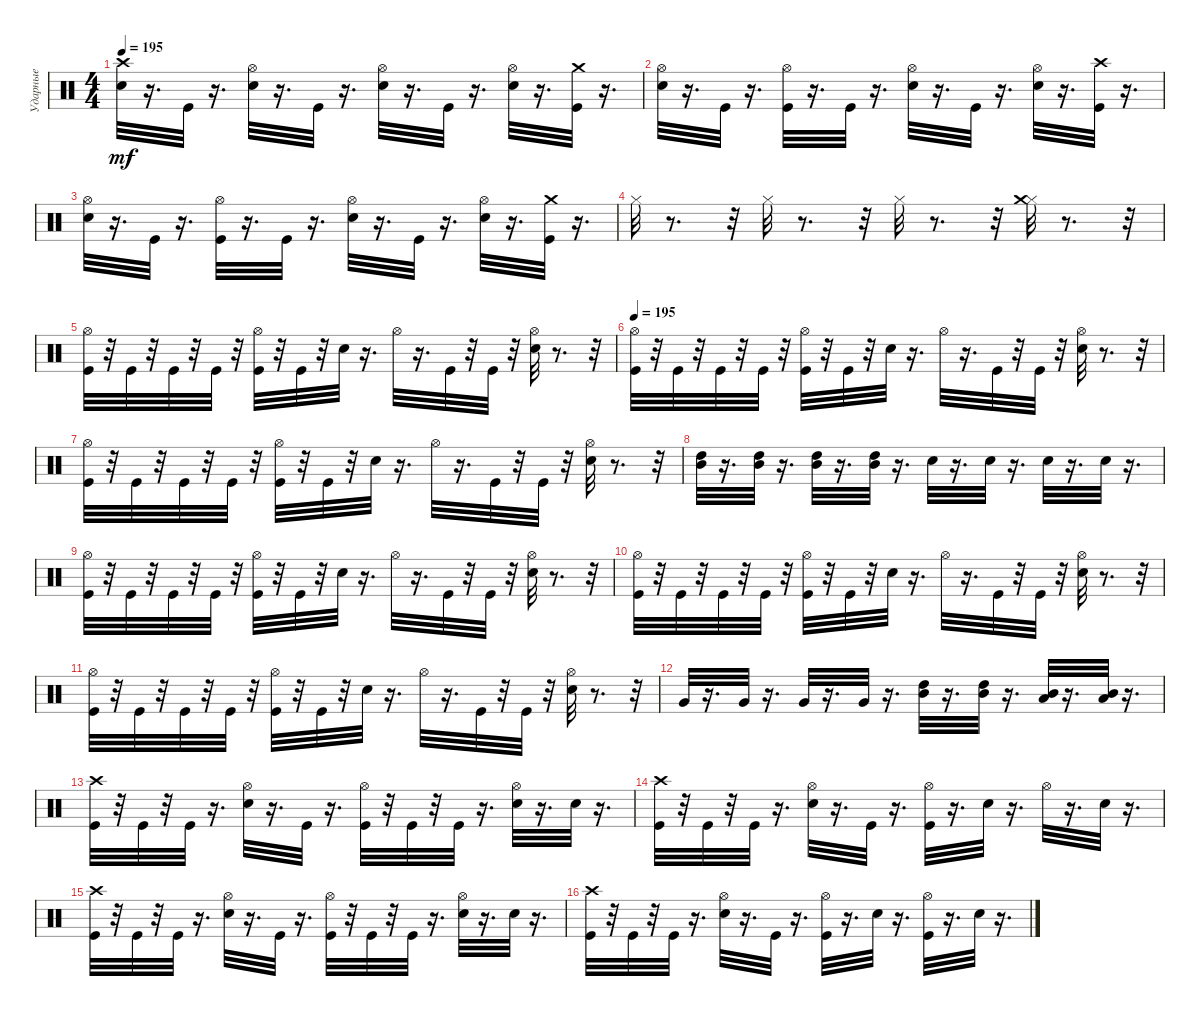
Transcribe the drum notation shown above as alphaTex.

\track ("Ударные" "Ударные") {instrument percussion}
\staff {score}
\articulation defaults
\ts (4 4)
\tempo 195
\clef neutral
\ks c
("Crash high (hit)" "Electric Snare (hit)").32{dy mf} r.16{d} "Kick (hit)".32 r.16{d} ("Electric Snare (hit)" "Hi-Hat (open)").32 r.16{d} "Kick (hit)".32 r.16{d} ("Electric Snare (hit)" "Hi-Hat (open)").32 r.16{d} "Kick (hit)".32 r.16{d} ("Hi-Hat (open)" "Electric Snare (hit)").32 r.16{d} ("Kick (hit)" "Crash medium (hit)").32 r.16{d} |
("Hi-Hat (open)" "Electric Snare (hit)").32 r.16{d} "Kick (hit)".32 r.16{d} ("Hi-Hat (open)" "Kick (hit)").32 r.16{d} "Kick (hit)".32 r.16{d} ("Hi-Hat (open)" "Electric Snare (hit)").32 r.16{d} "Kick (hit)".32 r.16{d} ("Electric Snare (hit)" "Hi-Hat (open)").32 r.16{d} ("Crash high (hit)" "Kick (hit)").32 r.16{d} |
("Electric Snare (hit)" "Hi-Hat (open)").32 r.16{d} "Kick (hit)".32 r.16{d} ("Kick (hit)" "Hi-Hat (open)").32 r.16{d} "Kick (hit)".32 r.16{d} ("Electric Snare (hit)" "Hi-Hat (open)").32 r.16{d} "Kick (hit)".32 r.16{d} ("Electric Snare (hit)" "Hi-Hat (open)").32 r.16{d} ("Kick (hit)" "Crash medium (hit)").32 r.16{d} |
"Hi-Hat (closed)".32 r.8{d} r.32 "Hi-Hat (closed)".32 r.8{d} r.32 "Hi-Hat (closed)".32 r.8{d} r.32 ("Hi-Hat (closed)" "Crash medium (hit)").32 r.8{d} r.32 |
("Kick (hit)" "Hi-Hat (open)").32 r.32 "Kick (hit)".32 r.32 "Kick (hit)".32 r.32 "Kick (hit)".32 r.32 ("Kick (hit)" "Hi-Hat (open)").32 r.32 "Kick (hit)".32 r.32 "Electric Snare (hit)".32 r.16{d} "Hi-Hat (open)".32 r.16{d} "Kick (hit)".32 r.32 "Kick (hit)".32 r.32 ("Hi-Hat (open)" "Electric Snare (hit)").32 r.8{d} r.32 |
\tempo 195
("Kick (hit)" "Hi-Hat (open)").32 r.32 "Kick (hit)".32 r.32 "Kick (hit)".32 r.32 "Kick (hit)".32 r.32 ("Kick (hit)" "Hi-Hat (open)").32 r.32 "Kick (hit)".32 r.32 "Electric Snare (hit)".32 r.16{d} "Hi-Hat (open)".32 r.16{d} "Kick (hit)".32 r.32 "Kick (hit)".32 r.32 ("Electric Snare (hit)" "Hi-Hat (open)").32 r.8{d} r.32 |
("Kick (hit)" "Hi-Hat (open)").32 r.32 "Kick (hit)".32 r.32 "Kick (hit)".32 r.32 "Kick (hit)".32 r.32 ("Kick (hit)" "Hi-Hat (open)").32 r.32 "Kick (hit)".32 r.32 "Electric Snare (hit)".32 r.16{d} "Hi-Hat (open)".32 r.16{d} "Kick (hit)".32 r.32 "Kick (hit)".32 r.32 ("Electric Snare (hit)" "Hi-Hat (open)").32 r.8{d} r.32 |
("Mid Tom (hit)" "High Tom (hit)").32 r.16{d} ("Mid Tom (hit)" "High Tom (hit)").32 r.16{d} ("High Tom (hit)" "Mid Tom (hit)").32 r.16{d} ("High Tom (hit)" "Mid Tom (hit)").32 r.16{d} "Electric Snare (hit)".32 r.16{d} "Electric Snare (hit)".32 r.16{d} "Electric Snare (hit)".32 r.16{d} "Electric Snare (hit)".32 r.16{d} |
("Kick (hit)" "Hi-Hat (open)").32 r.32 "Kick (hit)".32 r.32 "Kick (hit)".32 r.32 "Kick (hit)".32 r.32 ("Kick (hit)" "Hi-Hat (open)").32 r.32 "Kick (hit)".32 r.32 "Electric Snare (hit)".32 r.16{d} "Hi-Hat (open)".32 r.16{d} "Kick (hit)".32 r.32 "Kick (hit)".32 r.32 ("Hi-Hat (open)" "Electric Snare (hit)").32 r.8{d} r.32 |
("Kick (hit)" "Hi-Hat (open)").32 r.32 "Kick (hit)".32 r.32 "Kick (hit)".32 r.32 "Kick (hit)".32 r.32 ("Kick (hit)" "Hi-Hat (open)").32 r.32 "Kick (hit)".32 r.32 "Electric Snare (hit)".32 r.16{d} "Hi-Hat (open)".32 r.16{d} "Kick (hit)".32 r.32 "Kick (hit)".32 r.32 ("Electric Snare (hit)" "Hi-Hat (open)").32 r.8{d} r.32 |
("Kick (hit)" "Hi-Hat (open)").32 r.32 "Kick (hit)".32 r.32 "Kick (hit)".32 r.32 "Kick (hit)".32 r.32 ("Kick (hit)" "Hi-Hat (open)").32 r.32 "Kick (hit)".32 r.32 "Electric Snare (hit)".32 r.16{d} "Hi-Hat (open)".32 r.16{d} "Kick (hit)".32 r.32 "Kick (hit)".32 r.32 ("Electric Snare (hit)" "Hi-Hat (open)").32 r.8{d} r.32 |
"Very Low Tom (hit)".32 r.16{d} "Very Low Tom (hit)".32 r.16{d} "Very Low Tom (hit)".32 r.16{d} "Very Low Tom (hit)".32 r.16{d} ("Mid Tom (hit)" "High Tom (hit)").32 r.16{d} ("Mid Tom (hit)" "High Tom (hit)").32 r.16{d} ("Low Tom (hit)" "Mid Tom (hit)").32 r.16{d} ("Low Tom (hit)" "Mid Tom (hit)").32 r.16{d} |
("Kick (hit)" "Crash high (hit)").32 r.32 "Kick (hit)".32 r.32 "Kick (hit)".32 r.16{d} ("Hi-Hat (open)" "Electric Snare (hit)").32 r.16{d} "Kick (hit)".32 r.16{d} ("Kick (hit)" "Hi-Hat (open)").32 r.32 "Kick (hit)".32 r.32 "Kick (hit)".32 r.16{d} ("Hi-Hat (open)" "Electric Snare (hit)").32 r.16{d} "Electric Snare (hit)".32 r.16{d} |
("Crash high (hit)" "Kick (hit)").32 r.32 "Kick (hit)".32 r.32 "Kick (hit)".32 r.16{d} ("Electric Snare (hit)" "Hi-Hat (open)").32 r.16{d} "Kick (hit)".32 r.16{d} ("Kick (hit)" "Hi-Hat (open)").32 r.16{d} "Electric Snare (hit)".32 r.16{d} "Hi-Hat (open)".32 r.16{d} "Electric Snare (hit)".32 r.16{d} |
("Crash high (hit)" "Kick (hit)").32 r.32 "Kick (hit)".32 r.32 "Kick (hit)".32 r.16{d} ("Electric Snare (hit)" "Hi-Hat (open)").32 r.16{d} "Kick (hit)".32 r.16{d} ("Kick (hit)" "Hi-Hat (open)").32 r.32 "Kick (hit)".32 r.32 "Kick (hit)".32 r.16{d} ("Electric Snare (hit)" "Hi-Hat (open)").32 r.16{d} "Electric Snare (hit)".32 r.16{d} |
("Crash high (hit)" "Kick (hit)").32 r.32 "Kick (hit)".32 r.32 "Kick (hit)".32 r.16{d} ("Electric Snare (hit)" "Hi-Hat (open)").32 r.16{d} "Kick (hit)".32 r.16{d} ("Kick (hit)" "Hi-Hat (open)").32 r.16{d} "Electric Snare (hit)".32 r.16{d} ("Kick (hit)" "Hi-Hat (open)").32 r.16{d} "Electric Snare (hit)".32 r.16{d}
